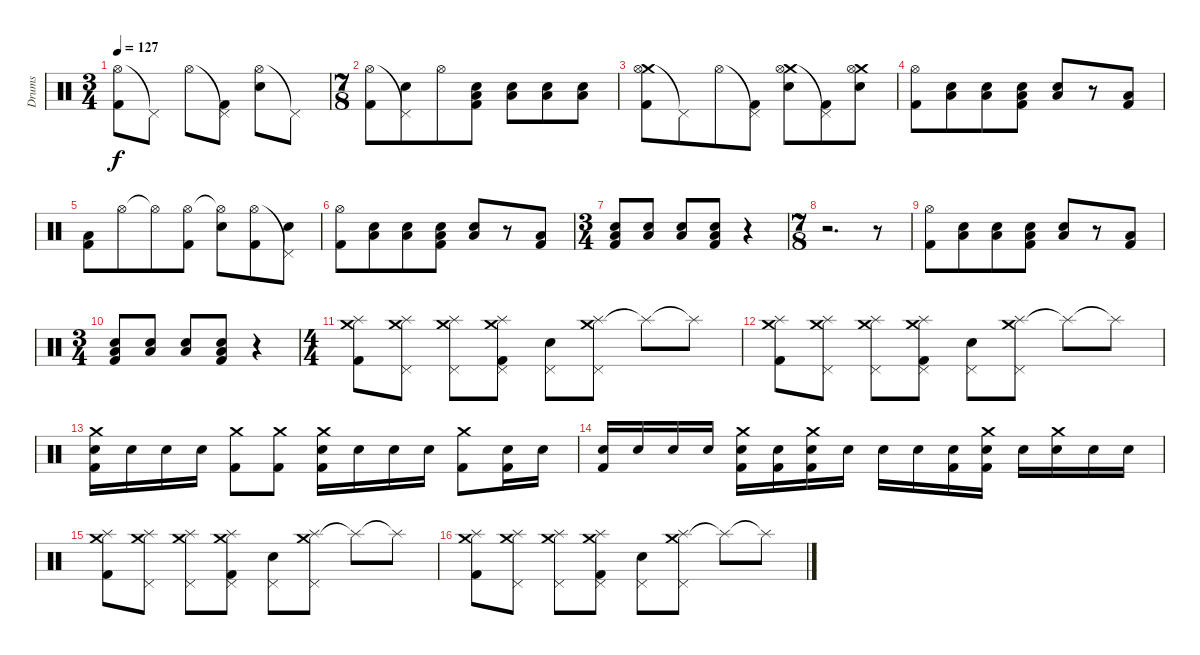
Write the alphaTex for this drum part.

\track ("Drums" "Drums") {instrument percussion}
\staff {score}
\articulation defaults
\ts (3 4)
\tempo 127
\clef neutral
\ks c
("Hi-Hat (open)" "Kick (hit) 2").8{dy f} "Pedal Hi-Hat (hit)"{t}.8 "Hi-Hat (open)".8 ("Pedal Hi-Hat (hit)"{t} "Kick (hit) 2").8 ("Hi-Hat (open)" "Electric Snare (hit)").8 "Pedal Hi-Hat (hit)"{t}.8 |
\ts (7 8)
("Hi-Hat (open)" "Kick (hit) 2").8 ("Pedal Hi-Hat (hit)"{t} "Electric Snare (hit)").8 "Hi-Hat (open)".8 ("Low Tom (hit)" "Electric Snare (hit)" "Kick (hit) 2").8 ("Low Tom (hit)" "Electric Snare (hit)").8 ("Low Tom (hit)" "Electric Snare (hit)").8 ("Low Tom (hit)" "Electric Snare (hit)").8 |
("Crash medium (hit)" "Hi-Hat (open)" "Kick (hit) 2").8 "Pedal Hi-Hat (hit)"{t}.8 "Hi-Hat (open)".8 ("Pedal Hi-Hat (hit)"{t} "Kick (hit) 2").8 ("Crash medium (hit)" "Hi-Hat (open)" "Electric Snare (hit)").8 ("Pedal Hi-Hat (hit)"{t} "Kick (hit) 2").8 ("Crash medium (hit)" "Hi-Hat (open)" "Electric Snare (hit)").8 |
("Hi-Hat (open)" "Kick (hit) 2").8 ("Low Tom (hit)" "Electric Snare (hit)").8 ("Low Tom (hit)" "Electric Snare (hit)").8 ("Low Tom (hit)" "Electric Snare (hit)" "Kick (hit) 2").8 ("Low Tom (hit)" "Electric Snare (hit)").8 r.8 ("Low Tom (hit)" "Kick (hit) 2").8 |
("Low Tom (hit)" "Kick (hit) 2").8 "Hi-Hat (open)".8 "Hi-Hat (open)"{t}.8 ("Hi-Hat (open)" "Kick (hit) 2").8 ("Hi-Hat (open)"{t} "Electric Snare (hit)").8 ("Hi-Hat (open)" "Kick (hit) 2").8 ("Pedal Hi-Hat (hit)"{t} "Electric Snare (hit)").8 |
("Hi-Hat (open)" "Kick (hit) 2").8 ("Low Tom (hit)" "Electric Snare (hit)").8 ("Low Tom (hit)" "Electric Snare (hit)").8 ("Low Tom (hit)" "Electric Snare (hit)" "Kick (hit) 2").8 ("Low Tom (hit)" "Electric Snare (hit)").8 r.8 ("Low Tom (hit)" "Kick (hit) 2").8 |
\ts (3 4)
("Low Tom (hit)" "Electric Snare (hit)" "Kick (hit) 2").8 ("Low Tom (hit)" "Electric Snare (hit)").8 ("Low Tom (hit)" "Electric Snare (hit)").8 ("Low Tom (hit)" "Electric Snare (hit)" "Kick (hit) 2").8 r.4 |
\ts (7 8)
r.2{d} r.8 |
("Hi-Hat (open)" "Kick (hit) 2").8 ("Low Tom (hit)" "Electric Snare (hit)").8 ("Low Tom (hit)" "Electric Snare (hit)").8 ("Low Tom (hit)" "Electric Snare (hit)" "Kick (hit) 2").8 ("Low Tom (hit)" "Electric Snare (hit)").8 r.8 ("Low Tom (hit)" "Kick (hit) 2").8 |
\ts (3 4)
("Low Tom (hit)" "Electric Snare (hit)" "Kick (hit) 2").8 ("Low Tom (hit)" "Electric Snare (hit)").8 ("Low Tom (hit)" "Electric Snare (hit)").8 ("Low Tom (hit)" "Electric Snare (hit)" "Kick (hit) 2").8 r.4 |
\ts (4 4)
("Crash medium (hit)" "Splash (hit)" "Kick (hit) 2").8 ("Crash medium (hit)" "Splash (hit)" "Pedal Hi-Hat (hit)").8 ("Crash medium (hit)" "Splash (hit)" "Pedal Hi-Hat (hit)").8 ("Crash medium (hit)" "Splash (hit)" "Pedal Hi-Hat (hit)" "Kick (hit) 2").8 ("Pedal Hi-Hat (hit)" "Electric Snare (hit)").8 ("Crash medium (hit)" "Splash (hit)" "Pedal Hi-Hat (hit)").8 "Splash (hit)"{t}.8 "Splash (hit)"{t}.8 |
("Crash medium (hit)" "Splash (hit)" "Kick (hit) 2").8 ("Crash medium (hit)" "Splash (hit)" "Pedal Hi-Hat (hit)").8 ("Crash medium (hit)" "Splash (hit)" "Pedal Hi-Hat (hit)").8 ("Crash medium (hit)" "Splash (hit)" "Pedal Hi-Hat (hit)" "Kick (hit) 2").8 ("Pedal Hi-Hat (hit)" "Electric Snare (hit)").8 ("Crash medium (hit)" "Splash (hit)" "Pedal Hi-Hat (hit)").8 "Splash (hit)"{t}.8 "Splash (hit)"{t}.8 |
("Crash medium (hit)" "Electric Snare (hit)" "Kick (hit) 2").16 "Electric Snare (hit)".16 "Electric Snare (hit)".16 "Electric Snare (hit)".16 ("Crash medium (hit)" "Kick (hit) 2").8 ("Crash medium (hit)" "Kick (hit) 2").8 ("Crash medium (hit)" "Electric Snare (hit)" "Kick (hit) 2").16 "Electric Snare (hit)".16 "Electric Snare (hit)".16 "Electric Snare (hit)".16 ("Crash medium (hit)" "Kick (hit) 2").8 ("Electric Snare (hit)" "Kick (hit) 2").16 "Electric Snare (hit)".16 |
("Electric Snare (hit)" "Kick (hit) 2").16 "Electric Snare (hit)".16 "Electric Snare (hit)".16 "Electric Snare (hit)".16 ("Crash medium (hit)" "Electric Snare (hit)" "Kick (hit) 2").16 ("Electric Snare (hit)" "Kick (hit) 2").16 ("Crash medium (hit)" "Electric Snare (hit)" "Kick (hit) 2").16 "Electric Snare (hit)".16 "Electric Snare (hit)".16 "Electric Snare (hit)".16 ("Electric Snare (hit)" "Kick (hit) 2").16 ("Crash medium (hit)" "Electric Snare (hit)" "Kick (hit) 2").16 "Electric Snare (hit)".16 ("Crash medium (hit)" "Electric Snare (hit)").16 "Electric Snare (hit)".16 "Electric Snare (hit)".16 |
("Crash medium (hit)" "Splash (hit)" "Kick (hit) 2").8 ("Crash medium (hit)" "Splash (hit)" "Pedal Hi-Hat (hit)").8 ("Crash medium (hit)" "Splash (hit)" "Pedal Hi-Hat (hit)").8 ("Crash medium (hit)" "Splash (hit)" "Pedal Hi-Hat (hit)" "Kick (hit) 2").8 ("Pedal Hi-Hat (hit)" "Electric Snare (hit)").8 ("Crash medium (hit)" "Splash (hit)" "Pedal Hi-Hat (hit)").8 "Splash (hit)"{t}.8 "Splash (hit)"{t}.8 |
("Crash medium (hit)" "Splash (hit)" "Kick (hit) 2").8 ("Crash medium (hit)" "Splash (hit)" "Pedal Hi-Hat (hit)").8 ("Crash medium (hit)" "Splash (hit)" "Pedal Hi-Hat (hit)").8 ("Crash medium (hit)" "Splash (hit)" "Pedal Hi-Hat (hit)" "Kick (hit) 2").8 ("Pedal Hi-Hat (hit)" "Electric Snare (hit)").8 ("Crash medium (hit)" "Splash (hit)" "Pedal Hi-Hat (hit)").8 "Splash (hit)"{t}.8 "Splash (hit)"{t}.8
